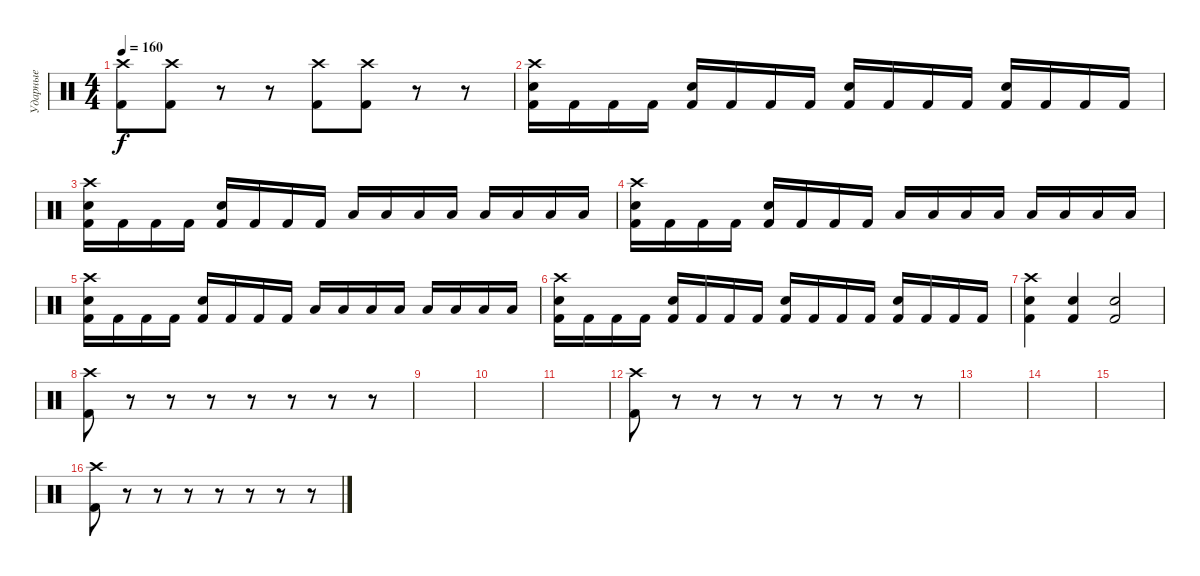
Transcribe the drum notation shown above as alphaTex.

\track ("Ударные" "Ударные") {instrument percussion}
\staff {score}
\articulation defaults
\ts (4 4)
\tempo 160
\clef neutral
\ks c
("Crash high (hit)" "Kick (hit) 2").8{dy f} ("Crash high (hit)" "Kick (hit) 2").8 r.8 r.8 ("Kick (hit) 2" "Crash high (hit)").8 ("Kick (hit) 2" "Crash high (hit)").8 r.8 r.8 |
("Crash high (hit)" "Electric Snare (hit)" "Kick (hit) 2").16 "Kick (hit) 2".16 "Kick (hit) 2".16 "Kick (hit) 2".16 ("Electric Snare (hit)" "Kick (hit) 2").16 "Kick (hit) 2".16 "Kick (hit) 2".16 "Kick (hit) 2".16 ("Kick (hit) 2" "Electric Snare (hit)").16 "Kick (hit) 2".16 "Kick (hit) 2".16 "Kick (hit) 2".16 ("Kick (hit) 2" "Electric Snare (hit)").16 "Kick (hit) 2".16 "Kick (hit) 2".16 "Kick (hit) 2".16 |
("Crash high (hit)" "Electric Snare (hit)" "Kick (hit) 2").16 "Kick (hit) 2".16 "Kick (hit) 2".16 "Kick (hit) 2".16 ("Electric Snare (hit)" "Kick (hit) 2").16 "Kick (hit) 2".16 "Kick (hit) 2".16 "Kick (hit) 2".16 "Low Tom (hit)".16 "Low Tom (hit)".16 "Low Tom (hit)".16 "Low Tom (hit)".16 "Low Floor Tom (hit)".16 "Low Floor Tom (hit)".16 "Low Floor Tom (hit)".16 "Low Floor Tom (hit)".16 |
("Crash high (hit)" "Electric Snare (hit)" "Kick (hit) 2").16 "Kick (hit) 2".16 "Kick (hit) 2".16 "Kick (hit) 2".16 ("Electric Snare (hit)" "Kick (hit) 2").16 "Kick (hit) 2".16 "Kick (hit) 2".16 "Kick (hit) 2".16 "Low Tom (hit)".16 "Low Tom (hit)".16 "Low Tom (hit)".16 "Low Tom (hit)".16 "Low Floor Tom (hit)".16 "Low Floor Tom (hit)".16 "Low Floor Tom (hit)".16 "Low Floor Tom (hit)".16 |
("Crash high (hit)" "Electric Snare (hit)" "Kick (hit) 2").16 "Kick (hit) 2".16 "Kick (hit) 2".16 "Kick (hit) 2".16 ("Electric Snare (hit)" "Kick (hit) 2").16 "Kick (hit) 2".16 "Kick (hit) 2".16 "Kick (hit) 2".16 "Low Tom (hit)".16 "Low Tom (hit)".16 "Low Tom (hit)".16 "Low Tom (hit)".16 "Low Floor Tom (hit)".16 "Low Floor Tom (hit)".16 "Low Floor Tom (hit)".16 "Low Floor Tom (hit)".16 |
("Crash high (hit)" "Electric Snare (hit)" "Kick (hit) 2").16 "Kick (hit) 2".16 "Kick (hit) 2".16 "Kick (hit) 2".16 ("Electric Snare (hit)" "Kick (hit) 2").16 "Kick (hit) 2".16 "Kick (hit) 2".16 "Kick (hit) 2".16 ("Kick (hit) 2" "Electric Snare (hit)").16 "Kick (hit) 2".16 "Kick (hit) 2".16 "Kick (hit) 2".16 ("Kick (hit) 2" "Electric Snare (hit)").16 "Kick (hit) 2".16 "Kick (hit) 2".16 "Kick (hit) 2".16 |
("Crash high (hit)" "Electric Snare (hit)" "Kick (hit) 2").4 ("Electric Snare (hit)" "Kick (hit) 2").4 ("Kick (hit) 2" "Electric Snare (hit)").2 |
("Crash high (hit)" "Kick (hit) 2").8 r.8 r.8 r.8 r.8 r.8 r.8 r.8 |
|
|
|
("Crash high (hit)" "Kick (hit) 2").8 r.8 r.8 r.8 r.8 r.8 r.8 r.8 |
|
|
|
("Crash high (hit)" "Kick (hit) 2").8 r.8 r.8 r.8 r.8 r.8 r.8 r.8
